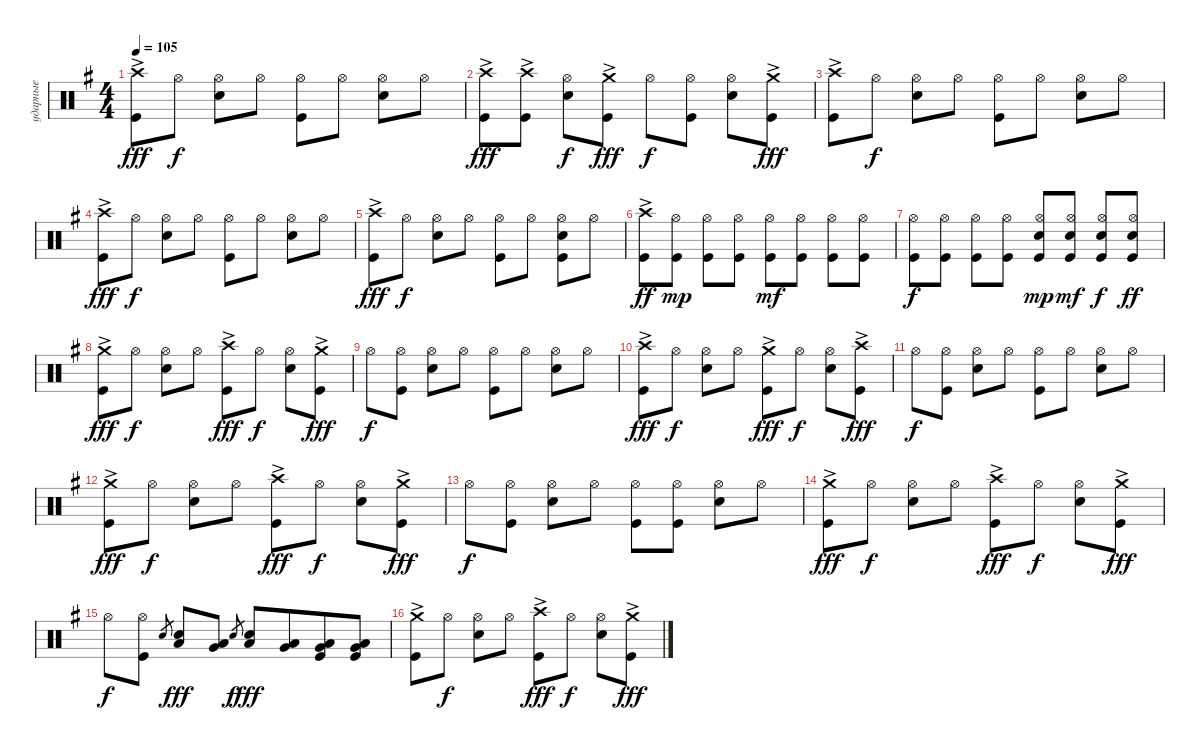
\track ("ударные" "ударные") {instrument percussion}
\staff {score}
\articulation defaults
\ts (4 4)
\tempo 105
\clef neutral
\ks eminor
("Kick (hit)" "Crash high (hit)"{ac}).8{dy fff} "Hi-Hat (open)".8{dy f} ("Snare (hit) 2" "Hi-Hat (open)").8 "Hi-Hat (open)".8 ("Kick (hit)" "Hi-Hat (open)").8 "Hi-Hat (open)".8 ("Snare (hit) 2" "Hi-Hat (open)").8 "Hi-Hat (open)".8 |
("Kick (hit)" "Crash high (hit)"{ac}).8{dy fff} ("Kick (hit)" "Crash high (hit)"{ac}).8 ("Snare (hit) 2" "Hi-Hat (open)").8{dy f} ("Kick (hit)" "Crash medium (hit)"{ac}).8{dy fff} "Hi-Hat (open)".8{dy f} ("Hi-Hat (open)" "Kick (hit)").8 ("Snare (hit) 2" "Hi-Hat (open)").8 ("Kick (hit)" "Crash medium (hit)"{ac}).8{dy fff} |
("Kick (hit)" "Crash high (hit)"{ac}).8 "Hi-Hat (open)".8{dy f} ("Snare (hit) 2" "Hi-Hat (open)").8 "Hi-Hat (open)".8 ("Kick (hit)" "Hi-Hat (open)").8 "Hi-Hat (open)".8 ("Snare (hit) 2" "Hi-Hat (open)").8 "Hi-Hat (open)".8 |
("Kick (hit)" "Crash high (hit)"{ac}).8{dy fff} "Hi-Hat (open)".8{dy f} ("Snare (hit) 2" "Hi-Hat (open)").8 "Hi-Hat (open)".8 ("Kick (hit)" "Hi-Hat (open)").8 "Hi-Hat (open)".8 ("Snare (hit) 2" "Hi-Hat (open)").8 "Hi-Hat (open)".8 |
("Kick (hit)" "Crash high (hit)"{ac}).8{dy fff} "Hi-Hat (open)".8{dy f} ("Snare (hit) 2" "Hi-Hat (open)").8 "Hi-Hat (open)".8 ("Kick (hit)" "Hi-Hat (open)").8 "Hi-Hat (open)".8 ("Kick (hit)" "Snare (hit) 2" "Hi-Hat (open)").8 "Hi-Hat (open)".8 |
("Kick (hit)" "Crash high (hit)"{ac}).8{dy ff} ("Hi-Hat (open)" "Kick (hit)").8{dy mp} ("Kick (hit)" "Hi-Hat (open)").8 ("Kick (hit)" "Hi-Hat (open)").8 ("Kick (hit)" "Hi-Hat (open)").8{dy mf} ("Kick (hit)" "Hi-Hat (open)").8 ("Kick (hit)" "Hi-Hat (open)").8 ("Kick (hit)" "Hi-Hat (open)").8 |
("Kick (hit)" "Hi-Hat (open)").8{dy f} ("Kick (hit)" "Hi-Hat (open)").8 ("Kick (hit)" "Hi-Hat (open)").8 ("Kick (hit)" "Hi-Hat (open)").8 ("Kick (hit)" "Hi-Hat (open)" "Snare (hit) 2").8{dy mp} ("Kick (hit)" "Hi-Hat (open)" "Snare (hit) 2").8{dy mf} ("Kick (hit)" "Hi-Hat (open)" "Snare (hit) 2").8{dy f} ("Kick (hit)" "Hi-Hat (open)" "Snare (hit) 2").8{dy ff} |
("Kick (hit)" "Crash medium (hit)"{ac}).8{dy fff} "Hi-Hat (open)".8{dy f} ("Snare (hit) 2" "Hi-Hat (open)").8 "Hi-Hat (open)".8 ("Kick (hit)" "Crash high (hit)"{ac}).8{dy fff} "Hi-Hat (open)".8{dy f} ("Snare (hit) 2" "Hi-Hat (open)").8 ("Kick (hit)" "Crash medium (hit)"{ac}).8{dy fff} |
"Hi-Hat (open)".8{dy f} ("Hi-Hat (open)" "Kick (hit)").8 ("Snare (hit) 2" "Hi-Hat (open)").8 "Hi-Hat (open)".8 ("Kick (hit)" "Hi-Hat (open)").8 "Hi-Hat (open)".8 ("Snare (hit) 2" "Hi-Hat (open)").8 "Hi-Hat (open)".8 |
("Kick (hit)" "Crash high (hit)"{ac}).8{dy fff} "Hi-Hat (open)".8{dy f} ("Snare (hit) 2" "Hi-Hat (open)").8 "Hi-Hat (open)".8 ("Kick (hit)" "Crash medium (hit)"{ac}).8{dy fff} "Hi-Hat (open)".8{dy f} ("Snare (hit) 2" "Hi-Hat (open)").8 ("Kick (hit)" "Crash high (hit)"{ac}).8{dy fff} |
"Hi-Hat (open)".8{dy f} ("Hi-Hat (open)" "Kick (hit)").8 ("Snare (hit) 2" "Hi-Hat (open)").8 "Hi-Hat (open)".8 ("Kick (hit)" "Hi-Hat (open)").8 "Hi-Hat (open)".8 ("Snare (hit) 2" "Hi-Hat (open)").8 "Hi-Hat (open)".8 |
("Kick (hit)" "Crash medium (hit)"{ac}).8{dy fff} "Hi-Hat (open)".8{dy f} ("Snare (hit) 2" "Hi-Hat (open)").8 "Hi-Hat (open)".8 ("Kick (hit)" "Crash high (hit)"{ac}).8{dy fff} "Hi-Hat (open)".8{dy f} ("Snare (hit) 2" "Hi-Hat (open)").8 ("Kick (hit)" "Crash medium (hit)"{ac}).8{dy fff} |
"Hi-Hat (open)".8{dy f} ("Hi-Hat (open)" "Kick (hit)").8 ("Snare (hit) 2" "Hi-Hat (open)").8 "Hi-Hat (open)".8 ("Kick (hit)" "Hi-Hat (open)").8 ("Hi-Hat (open)" "Kick (hit)").8 ("Snare (hit) 2" "Hi-Hat (open)").8 "Hi-Hat (open)".8 |
("Kick (hit)" "Crash medium (hit)"{ac}).8{dy fff} "Hi-Hat (open)".8{dy f} ("Snare (hit) 2" "Hi-Hat (open)").8 "Hi-Hat (open)".8 ("Kick (hit)" "Crash high (hit)"{ac}).8{dy fff} "Hi-Hat (open)".8{dy f} ("Snare (hit) 2" "Hi-Hat (open)").8 ("Kick (hit)" "Crash medium (hit)"{ac}).8{dy fff} |
"Hi-Hat (open)".8{dy f} ("Hi-Hat (open)" "Kick (hit)").8 "Snare (hit) 2".8{gr} ("Snare (hit) 2" "Low Tom (hit)").8{dy fff} ("Low Tom (hit)" "Very Low Tom (hit)").8 "Snare (hit) 2".8{gr dy f} ("Snare (hit) 2" "Low Tom (hit)").8{dy fff} ("Low Tom (hit)" "Very Low Tom (hit)").8{beam merge} ("Kick (hit)" "Low Floor Tom (hit)" "Very Low Tom (hit)").8 ("Kick (hit)" "Low Floor Tom (hit)" "Very Low Tom (hit)").8 |
("Kick (hit)" "Crash medium (hit)"{ac}).8 "Hi-Hat (open)".8{dy f} ("Snare (hit) 2" "Hi-Hat (open)").8 "Hi-Hat (open)".8 ("Kick (hit)" "Crash high (hit)"{ac}).8{dy fff} "Hi-Hat (open)".8{dy f} ("Snare (hit) 2" "Hi-Hat (open)").8 ("Kick (hit)" "Crash medium (hit)"{ac}).8{dy fff}
